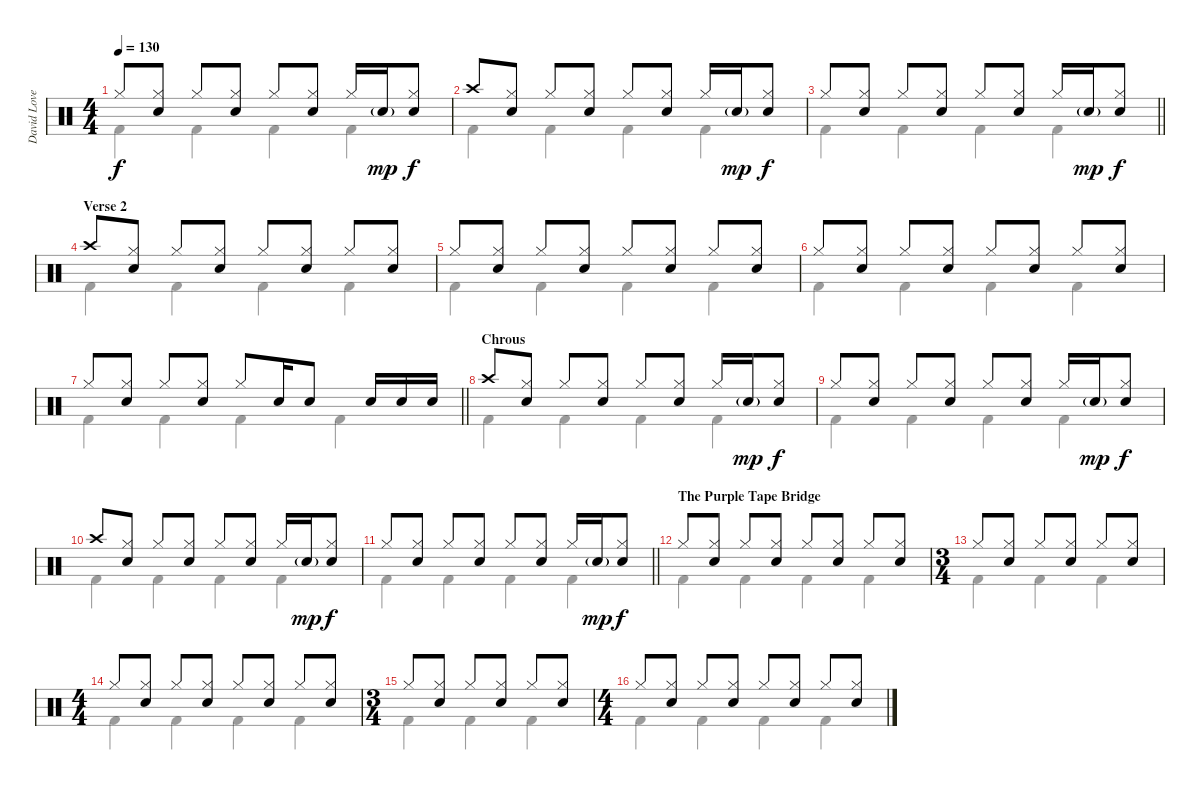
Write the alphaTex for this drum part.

\track ("David Lovering" "David Love") {instrument percussion}
\staff {score}
\articulation defaults
\voice
\ts (4 4)
\tempo 130
\clef neutral
\ks c "Hi-Hat (closed)".8{dy f}
("Hi-Hat (closed)" "Snare (hit) 2").8 "Hi-Hat (closed)".8 ("Hi-Hat (closed)" "Snare (hit) 2").8 "Hi-Hat (closed)".8 ("Hi-Hat (closed)" "Snare (hit) 2").8 "Hi-Hat (closed)".16 "Snare (hit) 2"{g}.16{dy mp} ("Hi-Hat (closed)" "Snare (hit) 2").8{dy f} |
"Crash high (hit)".8 ("Hi-Hat (closed)" "Snare (hit) 2").8 "Hi-Hat (closed)".8 ("Hi-Hat (closed)" "Snare (hit) 2").8 "Hi-Hat (closed)".8 ("Hi-Hat (closed)" "Snare (hit) 2").8 "Hi-Hat (closed)".16 "Snare (hit) 2"{g}.16{dy mp} ("Hi-Hat (closed)" "Snare (hit) 2").8{dy f} |
\barLineRight lightlight "Hi-Hat (closed)".8
("Hi-Hat (closed)" "Snare (hit) 2").8 "Hi-Hat (closed)".8 ("Hi-Hat (closed)" "Snare (hit) 2").8 "Hi-Hat (closed)".8 ("Hi-Hat (closed)" "Snare (hit) 2").8 "Hi-Hat (closed)".16 "Snare (hit) 2"{g}.16{dy mp} ("Hi-Hat (closed)" "Snare (hit) 2").8{dy f} |
\section ("" "Verse 2")
"Crash high (hit)".8 ("Hi-Hat (closed)" "Snare (hit) 2").8 "Hi-Hat (closed)".8 ("Hi-Hat (closed)" "Snare (hit) 2").8 "Hi-Hat (closed)".8 ("Hi-Hat (closed)" "Snare (hit) 2").8 "Hi-Hat (closed)".8 ("Hi-Hat (closed)" "Snare (hit) 2").8 |
"Hi-Hat (closed)".8 ("Hi-Hat (closed)" "Snare (hit) 2").8 "Hi-Hat (closed)".8 ("Hi-Hat (closed)" "Snare (hit) 2").8 "Hi-Hat (closed)".8 ("Hi-Hat (closed)" "Snare (hit) 2").8 "Hi-Hat (closed)".8 ("Hi-Hat (closed)" "Snare (hit) 2").8 |
"Hi-Hat (closed)".8 ("Hi-Hat (closed)" "Snare (hit) 2").8 "Hi-Hat (closed)".8 ("Hi-Hat (closed)" "Snare (hit) 2").8 "Hi-Hat (closed)".8 ("Hi-Hat (closed)" "Snare (hit) 2").8 "Hi-Hat (closed)".8 ("Hi-Hat (closed)" "Snare (hit) 2").8 |
\barLineRight lightlight "Hi-Hat (closed)".8
("Hi-Hat (closed)" "Snare (hit) 2").8 "Hi-Hat (closed)".8 ("Hi-Hat (closed)" "Snare (hit) 2").8 "Hi-Hat (closed)".8 "Snare (hit) 2".16 "Snare (hit) 2".8 "Snare (hit) 2".16 "Snare (hit) 2".16 "Snare (hit) 2".16 |
\section ("" "Chrous")
"Crash high (hit)".8 ("Hi-Hat (closed)" "Snare (hit) 2").8 "Hi-Hat (closed)".8 ("Hi-Hat (closed)" "Snare (hit) 2").8 "Hi-Hat (closed)".8 ("Hi-Hat (closed)" "Snare (hit) 2").8 "Hi-Hat (closed)".16 "Snare (hit) 2"{g}.16{dy mp} ("Hi-Hat (closed)" "Snare (hit) 2").8{dy f} |
"Hi-Hat (closed)".8 ("Hi-Hat (closed)" "Snare (hit) 2").8 "Hi-Hat (closed)".8 ("Hi-Hat (closed)" "Snare (hit) 2").8 "Hi-Hat (closed)".8 ("Hi-Hat (closed)" "Snare (hit) 2").8 "Hi-Hat (closed)".16 "Snare (hit) 2"{g}.16{dy mp} ("Hi-Hat (closed)" "Snare (hit) 2").8{dy f} |
"Crash high (hit)".8 ("Hi-Hat (closed)" "Snare (hit) 2").8 "Hi-Hat (closed)".8 ("Hi-Hat (closed)" "Snare (hit) 2").8 "Hi-Hat (closed)".8 ("Hi-Hat (closed)" "Snare (hit) 2").8 "Hi-Hat (closed)".16 "Snare (hit) 2"{g}.16{dy mp} ("Hi-Hat (closed)" "Snare (hit) 2").8{dy f} |
\barLineRight lightlight "Hi-Hat (closed)".8
("Hi-Hat (closed)" "Snare (hit) 2").8 "Hi-Hat (closed)".8 ("Hi-Hat (closed)" "Snare (hit) 2").8 "Hi-Hat (closed)".8 ("Hi-Hat (closed)" "Snare (hit) 2").8 "Hi-Hat (closed)".16 "Snare (hit) 2"{g}.16{dy mp} ("Hi-Hat (closed)" "Snare (hit) 2").8{dy f} |
\section ("" "The Purple Tape Bridge")
"Hi-Hat (closed)".8 ("Hi-Hat (closed)" "Snare (hit) 2").8 "Hi-Hat (closed)".8 ("Hi-Hat (closed)" "Snare (hit) 2").8 "Hi-Hat (closed)".8 ("Hi-Hat (closed)" "Snare (hit) 2").8 "Hi-Hat (closed)".8 ("Hi-Hat (closed)" "Snare (hit) 2").8 |
\ts (3 4)
"Hi-Hat (closed)".8 ("Hi-Hat (closed)" "Snare (hit) 2").8 "Hi-Hat (closed)".8 ("Hi-Hat (closed)" "Snare (hit) 2").8 "Hi-Hat (closed)".8 ("Hi-Hat (closed)" "Snare (hit) 2").8 |
\ts (4 4)
"Hi-Hat (closed)".8 ("Hi-Hat (closed)" "Snare (hit) 2").8 "Hi-Hat (closed)".8 ("Hi-Hat (closed)" "Snare (hit) 2").8 "Hi-Hat (closed)".8 ("Hi-Hat (closed)" "Snare (hit) 2").8 "Hi-Hat (closed)".8 ("Hi-Hat (closed)" "Snare (hit) 2").8 |
\ts (3 4)
"Hi-Hat (closed)".8 ("Hi-Hat (closed)" "Snare (hit) 2").8 "Hi-Hat (closed)".8 ("Hi-Hat (closed)" "Snare (hit) 2").8 "Hi-Hat (closed)".8 ("Hi-Hat (closed)" "Snare (hit) 2").8 |
\ts (4 4)
"Hi-Hat (closed)".8 ("Hi-Hat (closed)" "Snare (hit) 2").8 "Hi-Hat (closed)".8 ("Hi-Hat (closed)" "Snare (hit) 2").8 "Hi-Hat (closed)".8 ("Hi-Hat (closed)" "Snare (hit) 2").8 "Hi-Hat (closed)".8 ("Hi-Hat (closed)" "Snare (hit) 2").8
\voice
\clef neutral
\ottava regular
\simile none
\ks c "Kick (hit) 2".4{dy f} "Kick (hit) 2".4 "Kick (hit) 2".4 "Kick (hit) 2".4
|
"Kick (hit) 2".4 "Kick (hit) 2".4 "Kick (hit) 2".4 "Kick (hit) 2".4 |
\barLineRight lightlight "Kick (hit) 2".4 "Kick (hit) 2".4 "Kick (hit) 2".4 "Kick (hit) 2".4
|
"Kick (hit) 2".4 "Kick (hit) 2".4 "Kick (hit) 2".4 "Kick (hit) 2".4 |
"Kick (hit) 2".4 "Kick (hit) 2".4 "Kick (hit) 2".4 "Kick (hit) 2".4 |
"Kick (hit) 2".4 "Kick (hit) 2".4 "Kick (hit) 2".4 "Kick (hit) 2".4 |
\barLineRight lightlight "Kick (hit) 2".4 "Kick (hit) 2".4 "Kick (hit) 2".4 "Kick (hit) 2".4
|
"Kick (hit) 2".4 "Kick (hit) 2".4 "Kick (hit) 2".4 "Kick (hit) 2".4 |
"Kick (hit) 2".4 "Kick (hit) 2".4 "Kick (hit) 2".4 "Kick (hit) 2".4 |
"Kick (hit) 2".4 "Kick (hit) 2".4 "Kick (hit) 2".4 "Kick (hit) 2".4 |
\barLineRight lightlight "Kick (hit) 2".4 "Kick (hit) 2".4 "Kick (hit) 2".4 "Kick (hit) 2".4
|
"Kick (hit) 2".4 "Kick (hit) 2".4 "Kick (hit) 2".4 "Kick (hit) 2".4 |
"Kick (hit) 2".4 "Kick (hit) 2".4 "Kick (hit) 2".4 |
"Kick (hit) 2".4 "Kick (hit) 2".4 "Kick (hit) 2".4 "Kick (hit) 2".4 |
"Kick (hit) 2".4 "Kick (hit) 2".4 "Kick (hit) 2".4 |
"Kick (hit) 2".4 "Kick (hit) 2".4 "Kick (hit) 2".4 "Kick (hit) 2".4
